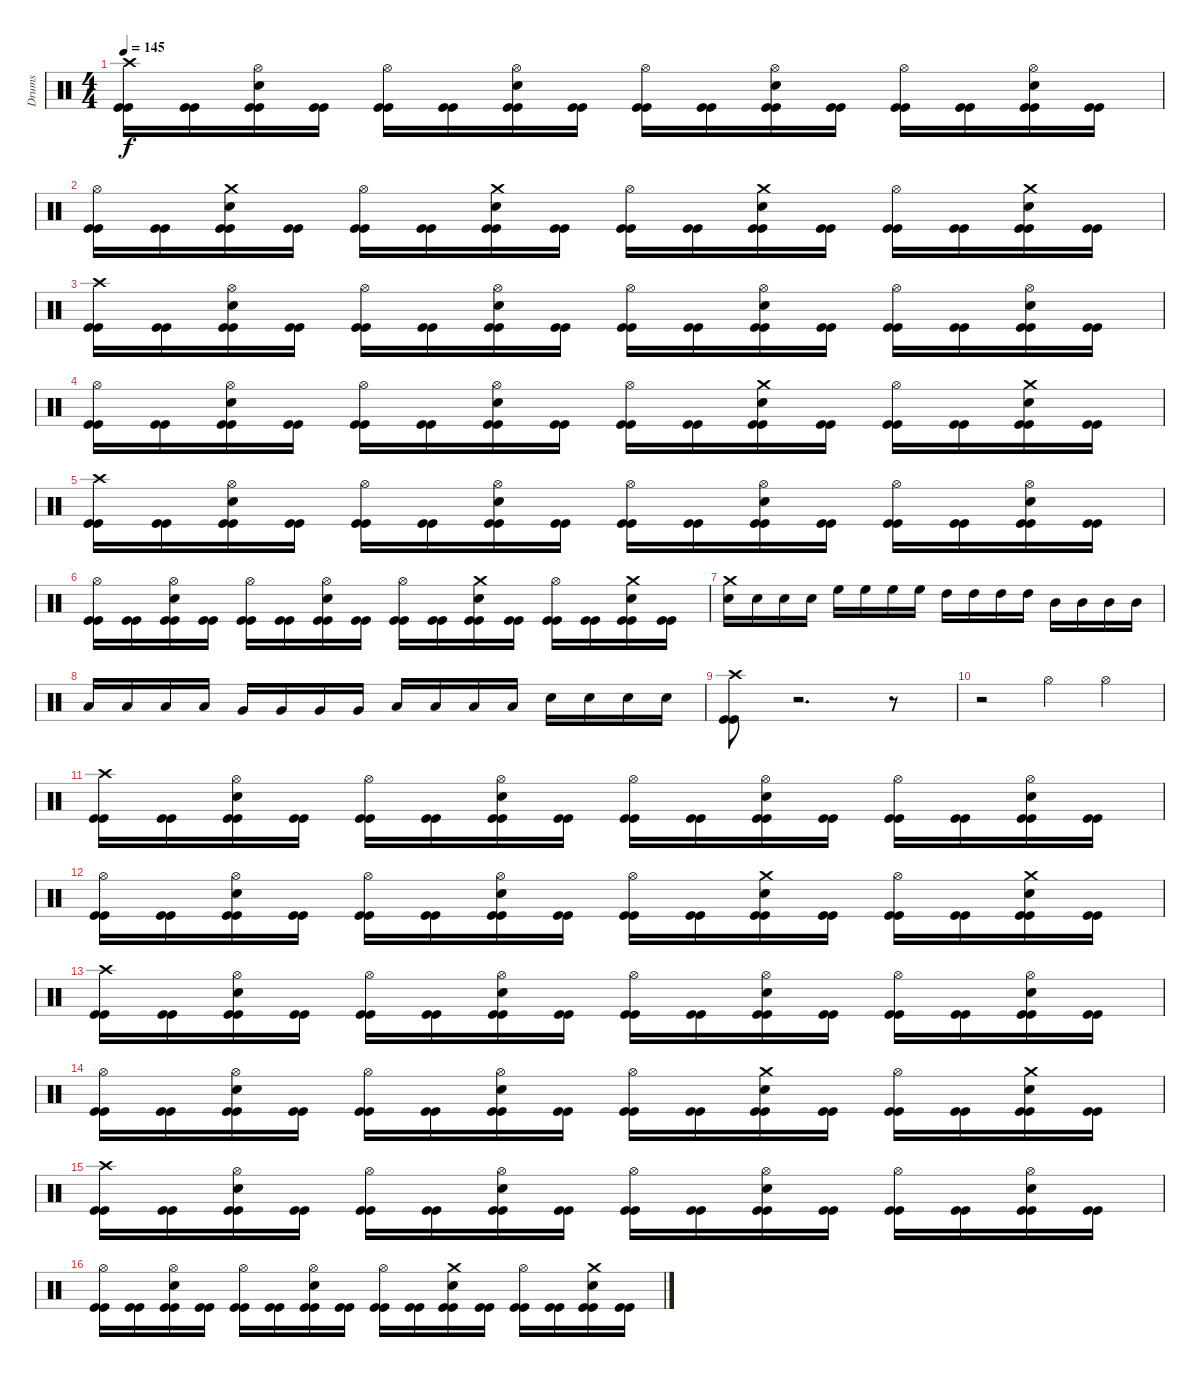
\track ("Drums" "Drums") {instrument percussion}
\staff {score}
\articulation defaults
\ts (4 4)
\tempo 145
\clef neutral
\ks c
("Kick (hit)" "Kick (hit)" "Crash high (hit)").16{dy f} ("Kick (hit)" "Kick (hit)").16 ("Kick (hit)" "Kick (hit)" "Snare (hit) 2" "Hi-Hat (open)").16 ("Kick (hit)" "Kick (hit)").16 ("Kick (hit)" "Kick (hit)" "Hi-Hat (open)").16 ("Kick (hit)" "Kick (hit)").16 ("Kick (hit)" "Kick (hit)" "Snare (hit) 2" "Hi-Hat (open)").16 ("Kick (hit)" "Kick (hit)").16 ("Kick (hit)" "Kick (hit)" "Hi-Hat (open)").16 ("Kick (hit)" "Kick (hit)").16 ("Kick (hit)" "Kick (hit)" "Snare (hit) 2" "Hi-Hat (open)").16 ("Kick (hit)" "Kick (hit)").16 ("Kick (hit)" "Kick (hit)" "Hi-Hat (open)").16 ("Kick (hit)" "Kick (hit)").16 ("Kick (hit)" "Kick (hit)" "Snare (hit) 2" "Hi-Hat (open)").16 ("Kick (hit)" "Kick (hit)").16 |
("Kick (hit)" "Kick (hit)" "Hi-Hat (open)").16 ("Kick (hit)" "Kick (hit)").16 ("Kick (hit)" "Kick (hit)" "Snare (hit) 2" "Crash medium (hit)").16 ("Kick (hit)" "Kick (hit)").16 ("Kick (hit)" "Kick (hit)" "Hi-Hat (open)").16 ("Kick (hit)" "Kick (hit)").16 ("Kick (hit)" "Kick (hit)" "Snare (hit) 2" "Crash medium (hit)").16 ("Kick (hit)" "Kick (hit)").16 ("Kick (hit)" "Kick (hit)" "Hi-Hat (open)").16 ("Kick (hit)" "Kick (hit)").16 ("Kick (hit)" "Kick (hit)" "Snare (hit) 2" "Crash medium (hit)").16 ("Kick (hit)" "Kick (hit)").16 ("Kick (hit)" "Kick (hit)" "Hi-Hat (open)").16 ("Kick (hit)" "Kick (hit)").16 ("Kick (hit)" "Kick (hit)" "Snare (hit) 2" "Crash medium (hit)").16 ("Kick (hit)" "Kick (hit)").16 |
("Kick (hit)" "Kick (hit)" "Crash high (hit)").16 ("Kick (hit)" "Kick (hit)").16 ("Kick (hit)" "Kick (hit)" "Snare (hit) 2" "Hi-Hat (open)").16 ("Kick (hit)" "Kick (hit)").16 ("Kick (hit)" "Kick (hit)" "Hi-Hat (open)").16 ("Kick (hit)" "Kick (hit)").16 ("Kick (hit)" "Kick (hit)" "Snare (hit) 2" "Hi-Hat (open)").16 ("Kick (hit)" "Kick (hit)").16 ("Kick (hit)" "Kick (hit)" "Hi-Hat (open)").16 ("Kick (hit)" "Kick (hit)").16 ("Kick (hit)" "Kick (hit)" "Snare (hit) 2" "Hi-Hat (open)").16 ("Kick (hit)" "Kick (hit)").16 ("Kick (hit)" "Kick (hit)" "Hi-Hat (open)").16 ("Kick (hit)" "Kick (hit)").16 ("Kick (hit)" "Kick (hit)" "Snare (hit) 2" "Hi-Hat (open)").16 ("Kick (hit)" "Kick (hit)").16 |
("Kick (hit)" "Kick (hit)" "Hi-Hat (open)").16 ("Kick (hit)" "Kick (hit)").16 ("Kick (hit)" "Kick (hit)" "Snare (hit) 2" "Hi-Hat (open)").16 ("Kick (hit)" "Kick (hit)").16 ("Kick (hit)" "Kick (hit)" "Hi-Hat (open)").16 ("Kick (hit)" "Kick (hit)").16 ("Kick (hit)" "Kick (hit)" "Snare (hit) 2" "Hi-Hat (open)").16 ("Kick (hit)" "Kick (hit)").16 ("Kick (hit)" "Kick (hit)" "Hi-Hat (open)").16 ("Kick (hit)" "Kick (hit)").16 ("Kick (hit)" "Kick (hit)" "Snare (hit) 2" "Crash medium (hit)").16 ("Kick (hit)" "Kick (hit)").16 ("Kick (hit)" "Kick (hit)" "Hi-Hat (open)").16 ("Kick (hit)" "Kick (hit)").16 ("Kick (hit)" "Kick (hit)" "Snare (hit) 2" "Crash medium (hit)").16 ("Kick (hit)" "Kick (hit)").16 |
("Kick (hit)" "Kick (hit)" "Crash high (hit)").16 ("Kick (hit)" "Kick (hit)").16 ("Kick (hit)" "Kick (hit)" "Snare (hit) 2" "Hi-Hat (open)").16 ("Kick (hit)" "Kick (hit)").16 ("Kick (hit)" "Kick (hit)" "Hi-Hat (open)").16 ("Kick (hit)" "Kick (hit)").16 ("Kick (hit)" "Kick (hit)" "Snare (hit) 2" "Hi-Hat (open)").16 ("Kick (hit)" "Kick (hit)").16 ("Kick (hit)" "Kick (hit)" "Hi-Hat (open)").16 ("Kick (hit)" "Kick (hit)").16 ("Kick (hit)" "Kick (hit)" "Snare (hit) 2" "Hi-Hat (open)").16 ("Kick (hit)" "Kick (hit)").16 ("Kick (hit)" "Kick (hit)" "Hi-Hat (open)").16 ("Kick (hit)" "Kick (hit)").16 ("Kick (hit)" "Kick (hit)" "Snare (hit) 2" "Hi-Hat (open)").16 ("Kick (hit)" "Kick (hit)").16 |
("Kick (hit)" "Kick (hit)" "Hi-Hat (open)").16 ("Kick (hit)" "Kick (hit)").16 ("Kick (hit)" "Kick (hit)" "Snare (hit) 2" "Hi-Hat (open)").16 ("Kick (hit)" "Kick (hit)").16 ("Kick (hit)" "Kick (hit)" "Hi-Hat (open)").16 ("Kick (hit)" "Kick (hit)").16 ("Kick (hit)" "Kick (hit)" "Snare (hit) 2" "Hi-Hat (open)").16 ("Kick (hit)" "Kick (hit)").16 ("Kick (hit)" "Kick (hit)" "Hi-Hat (open)").16 ("Kick (hit)" "Kick (hit)").16 ("Kick (hit)" "Kick (hit)" "Snare (hit) 2" "Crash medium (hit)").16 ("Kick (hit)" "Kick (hit)").16 ("Kick (hit)" "Kick (hit)" "Hi-Hat (open)").16 ("Kick (hit)" "Kick (hit)").16 ("Kick (hit)" "Kick (hit)" "Snare (hit) 2" "Crash medium (hit)").16 ("Kick (hit)" "Kick (hit)").16 |
("Snare (hit) 2" "Crash medium (hit)").16 "Snare (hit) 2".16 "Snare (hit) 2".16 "Snare (hit) 2".16 "High Floor Tom (hit)".16 "High Floor Tom (hit)".16 "High Floor Tom (hit)".16 "High Floor Tom (hit)".16 "High Tom (hit)".16 "High Tom (hit)".16 "High Tom (hit)".16 "High Tom (hit)".16 "Mid Tom (hit)".16 "Mid Tom (hit)".16 "Mid Tom (hit)".16 "Mid Tom (hit)".16 |
"Low Tom (hit)".16 "Low Tom (hit)".16 "Low Tom (hit)".16 "Low Tom (hit)".16 "Very Low Tom (hit)".16 "Very Low Tom (hit)".16 "Very Low Tom (hit)".16 "Very Low Tom (hit)".16 "Low Floor Tom (hit)".16 "Low Floor Tom (hit)".16 "Low Floor Tom (hit)".16 "Low Floor Tom (hit)".16 "Snare (hit) 2".16 "Snare (hit) 2".16 "Snare (hit) 2".16 "Snare (hit) 2".16 |
("Kick (hit)" "Kick (hit)" "Crash high (hit)").8 r.2{d} r.8 |
r.2 "Hi-Hat (open)".4 "Hi-Hat (open)".4 |
("Kick (hit)" "Kick (hit)" "Crash high (hit)").16 ("Kick (hit)" "Kick (hit)").16 ("Kick (hit)" "Kick (hit)" "Snare (hit) 2" "Hi-Hat (open)").16 ("Kick (hit)" "Kick (hit)").16 ("Kick (hit)" "Kick (hit)" "Hi-Hat (open)").16 ("Kick (hit)" "Kick (hit)").16 ("Kick (hit)" "Kick (hit)" "Snare (hit) 2" "Hi-Hat (open)").16 ("Kick (hit)" "Kick (hit)").16 ("Kick (hit)" "Kick (hit)" "Hi-Hat (open)").16 ("Kick (hit)" "Kick (hit)").16 ("Kick (hit)" "Kick (hit)" "Snare (hit) 2" "Hi-Hat (open)").16 ("Kick (hit)" "Kick (hit)").16 ("Kick (hit)" "Kick (hit)" "Hi-Hat (open)").16 ("Kick (hit)" "Kick (hit)").16 ("Kick (hit)" "Kick (hit)" "Snare (hit) 2" "Hi-Hat (open)").16 ("Kick (hit)" "Kick (hit)").16 |
("Kick (hit)" "Kick (hit)" "Hi-Hat (open)").16 ("Kick (hit)" "Kick (hit)").16 ("Kick (hit)" "Kick (hit)" "Snare (hit) 2" "Hi-Hat (open)").16 ("Kick (hit)" "Kick (hit)").16 ("Kick (hit)" "Kick (hit)" "Hi-Hat (open)").16 ("Kick (hit)" "Kick (hit)").16 ("Kick (hit)" "Kick (hit)" "Snare (hit) 2" "Hi-Hat (open)").16 ("Kick (hit)" "Kick (hit)").16 ("Kick (hit)" "Kick (hit)" "Hi-Hat (open)").16 ("Kick (hit)" "Kick (hit)").16 ("Kick (hit)" "Kick (hit)" "Snare (hit) 2" "Crash medium (hit)").16 ("Kick (hit)" "Kick (hit)").16 ("Kick (hit)" "Kick (hit)" "Hi-Hat (open)").16 ("Kick (hit)" "Kick (hit)").16 ("Kick (hit)" "Kick (hit)" "Snare (hit) 2" "Crash medium (hit)").16 ("Kick (hit)" "Kick (hit)").16 |
("Kick (hit)" "Kick (hit)" "Crash high (hit)").16 ("Kick (hit)" "Kick (hit)").16 ("Kick (hit)" "Kick (hit)" "Snare (hit) 2" "Hi-Hat (open)").16 ("Kick (hit)" "Kick (hit)").16 ("Kick (hit)" "Kick (hit)" "Hi-Hat (open)").16 ("Kick (hit)" "Kick (hit)").16 ("Kick (hit)" "Kick (hit)" "Snare (hit) 2" "Hi-Hat (open)").16 ("Kick (hit)" "Kick (hit)").16 ("Kick (hit)" "Kick (hit)" "Hi-Hat (open)").16 ("Kick (hit)" "Kick (hit)").16 ("Kick (hit)" "Kick (hit)" "Snare (hit) 2" "Hi-Hat (open)").16 ("Kick (hit)" "Kick (hit)").16 ("Kick (hit)" "Kick (hit)" "Hi-Hat (open)").16 ("Kick (hit)" "Kick (hit)").16 ("Kick (hit)" "Kick (hit)" "Snare (hit) 2" "Hi-Hat (open)").16 ("Kick (hit)" "Kick (hit)").16 |
("Kick (hit)" "Kick (hit)" "Hi-Hat (open)").16 ("Kick (hit)" "Kick (hit)").16 ("Kick (hit)" "Kick (hit)" "Snare (hit) 2" "Hi-Hat (open)").16 ("Kick (hit)" "Kick (hit)").16 ("Kick (hit)" "Kick (hit)" "Hi-Hat (open)").16 ("Kick (hit)" "Kick (hit)").16 ("Kick (hit)" "Kick (hit)" "Snare (hit) 2" "Hi-Hat (open)").16 ("Kick (hit)" "Kick (hit)").16 ("Kick (hit)" "Kick (hit)" "Hi-Hat (open)").16 ("Kick (hit)" "Kick (hit)").16 ("Kick (hit)" "Kick (hit)" "Snare (hit) 2" "Crash medium (hit)").16 ("Kick (hit)" "Kick (hit)").16 ("Kick (hit)" "Kick (hit)" "Hi-Hat (open)").16 ("Kick (hit)" "Kick (hit)").16 ("Kick (hit)" "Kick (hit)" "Snare (hit) 2" "Crash medium (hit)").16 ("Kick (hit)" "Kick (hit)").16 |
("Kick (hit)" "Kick (hit)" "Crash high (hit)").16 ("Kick (hit)" "Kick (hit)").16 ("Kick (hit)" "Kick (hit)" "Snare (hit) 2" "Hi-Hat (open)").16 ("Kick (hit)" "Kick (hit)").16 ("Kick (hit)" "Kick (hit)" "Hi-Hat (open)").16 ("Kick (hit)" "Kick (hit)").16 ("Kick (hit)" "Kick (hit)" "Snare (hit) 2" "Hi-Hat (open)").16 ("Kick (hit)" "Kick (hit)").16 ("Kick (hit)" "Kick (hit)" "Hi-Hat (open)").16 ("Kick (hit)" "Kick (hit)").16 ("Kick (hit)" "Kick (hit)" "Snare (hit) 2" "Hi-Hat (open)").16 ("Kick (hit)" "Kick (hit)").16 ("Kick (hit)" "Kick (hit)" "Hi-Hat (open)").16 ("Kick (hit)" "Kick (hit)").16 ("Kick (hit)" "Kick (hit)" "Snare (hit) 2" "Hi-Hat (open)").16 ("Kick (hit)" "Kick (hit)").16 |
("Kick (hit)" "Kick (hit)" "Hi-Hat (open)").16 ("Kick (hit)" "Kick (hit)").16 ("Kick (hit)" "Kick (hit)" "Snare (hit) 2" "Hi-Hat (open)").16 ("Kick (hit)" "Kick (hit)").16 ("Kick (hit)" "Kick (hit)" "Hi-Hat (open)").16 ("Kick (hit)" "Kick (hit)").16 ("Kick (hit)" "Kick (hit)" "Snare (hit) 2" "Hi-Hat (open)").16 ("Kick (hit)" "Kick (hit)").16 ("Kick (hit)" "Kick (hit)" "Hi-Hat (open)").16 ("Kick (hit)" "Kick (hit)").16 ("Kick (hit)" "Kick (hit)" "Snare (hit) 2" "Crash medium (hit)").16 ("Kick (hit)" "Kick (hit)").16 ("Kick (hit)" "Kick (hit)" "Hi-Hat (open)").16 ("Kick (hit)" "Kick (hit)").16 ("Kick (hit)" "Kick (hit)" "Snare (hit) 2" "Crash medium (hit)").16 ("Kick (hit)" "Kick (hit)").16
